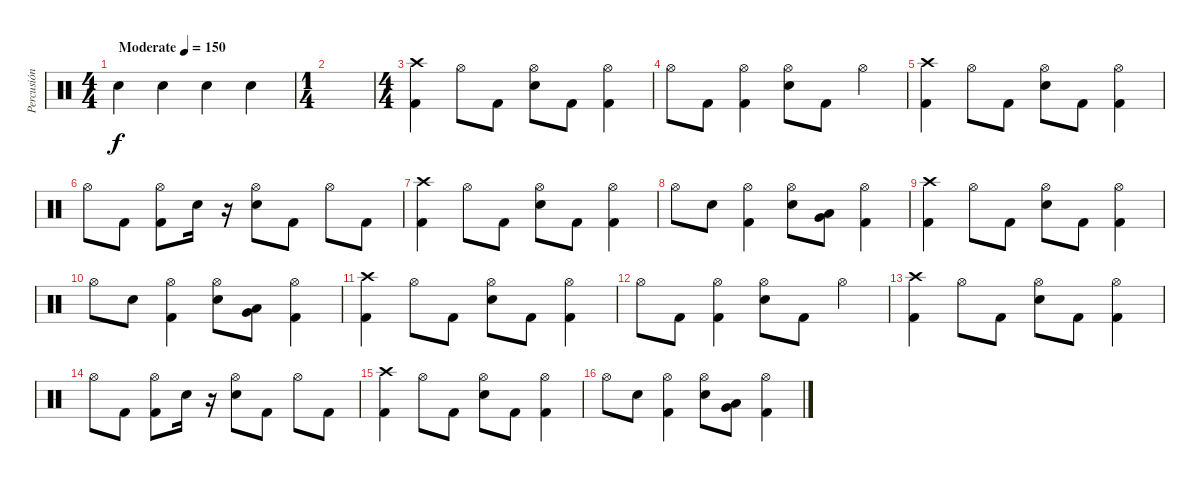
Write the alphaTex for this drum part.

\track ("Percusión" "Percusión") {instrument percussion}
\staff {score}
\articulation defaults
\ts (4 4)
\tempo (150 "Moderate")
\clef neutral
\ks c "Snare (hit) 2".4{dy f} "Snare (hit) 2".4 "Snare (hit) 2".4 "Snare (hit) 2".4
|
\ts (1 4)
|
\ts (4 4)
("Crash high (hit)" "Kick (hit) 2").4 "Hi-Hat (open)".8 "Kick (hit) 2".8 ("Hi-Hat (open)" "Snare (hit) 2").8 "Kick (hit) 2".8 ("Hi-Hat (open)" "Kick (hit) 2").4 |
"Hi-Hat (open)".8 "Kick (hit) 2".8 ("Hi-Hat (open)" "Kick (hit) 2").4 ("Hi-Hat (open)" "Snare (hit) 2").8 "Kick (hit) 2".8 "Hi-Hat (open)".4 |
("Crash high (hit)" "Kick (hit) 2").4 "Hi-Hat (open)".8 "Kick (hit) 2".8 ("Hi-Hat (open)" "Snare (hit) 2").8 "Kick (hit) 2".8 ("Hi-Hat (open)" "Kick (hit) 2").4 |
"Hi-Hat (open)".8 "Kick (hit) 2".8 ("Hi-Hat (open)" "Kick (hit) 2").8 "Snare (hit) 2".16 r.16 ("Hi-Hat (open)" "Snare (hit) 2").8 "Kick (hit) 2".8 "Hi-Hat (open)".8 "Kick (hit) 2".8 |
("Crash high (hit)" "Kick (hit) 2").4 "Hi-Hat (open)".8 "Kick (hit) 2".8 ("Hi-Hat (open)" "Snare (hit) 2").8 "Kick (hit) 2".8 ("Hi-Hat (open)" "Kick (hit) 2").4 |
"Hi-Hat (open)".8 "Snare (hit) 2".8 ("Hi-Hat (open)" "Kick (hit) 2").4 ("Hi-Hat (open)" "Snare (hit) 2").8 ("Low Floor Tom (hit)" "Very Low Tom (hit)").8 ("Hi-Hat (open)" "Kick (hit) 2").4 |
("Crash high (hit)" "Kick (hit) 2").4 "Hi-Hat (open)".8 "Kick (hit) 2".8 ("Hi-Hat (open)" "Snare (hit) 2").8 "Kick (hit) 2".8 ("Hi-Hat (open)" "Kick (hit) 2").4 |
"Hi-Hat (open)".8 "Snare (hit) 2".8 ("Hi-Hat (open)" "Kick (hit) 2").4 ("Hi-Hat (open)" "Snare (hit) 2").8 ("Low Floor Tom (hit)" "Very Low Tom (hit)").8 ("Hi-Hat (open)" "Kick (hit) 2").4 |
("Crash high (hit)" "Kick (hit) 2").4 "Hi-Hat (open)".8 "Kick (hit) 2".8 ("Hi-Hat (open)" "Snare (hit) 2").8 "Kick (hit) 2".8 ("Hi-Hat (open)" "Kick (hit) 2").4 |
"Hi-Hat (open)".8 "Kick (hit) 2".8 ("Hi-Hat (open)" "Kick (hit) 2").4 ("Hi-Hat (open)" "Snare (hit) 2").8 "Kick (hit) 2".8 "Hi-Hat (open)".4 |
("Crash high (hit)" "Kick (hit) 2").4 "Hi-Hat (open)".8 "Kick (hit) 2".8 ("Hi-Hat (open)" "Snare (hit) 2").8 "Kick (hit) 2".8 ("Hi-Hat (open)" "Kick (hit) 2").4 |
"Hi-Hat (open)".8 "Kick (hit) 2".8 ("Hi-Hat (open)" "Kick (hit) 2").8 "Snare (hit) 2".16 r.16 ("Hi-Hat (open)" "Snare (hit) 2").8 "Kick (hit) 2".8 "Hi-Hat (open)".8 "Kick (hit) 2".8 |
("Crash high (hit)" "Kick (hit) 2").4 "Hi-Hat (open)".8 "Kick (hit) 2".8 ("Hi-Hat (open)" "Snare (hit) 2").8 "Kick (hit) 2".8 ("Hi-Hat (open)" "Kick (hit) 2").4 |
"Hi-Hat (open)".8 "Snare (hit) 2".8 ("Hi-Hat (open)" "Kick (hit) 2").4 ("Hi-Hat (open)" "Snare (hit) 2").8 ("Low Floor Tom (hit)" "Very Low Tom (hit)").8 ("Hi-Hat (open)" "Kick (hit) 2").4
